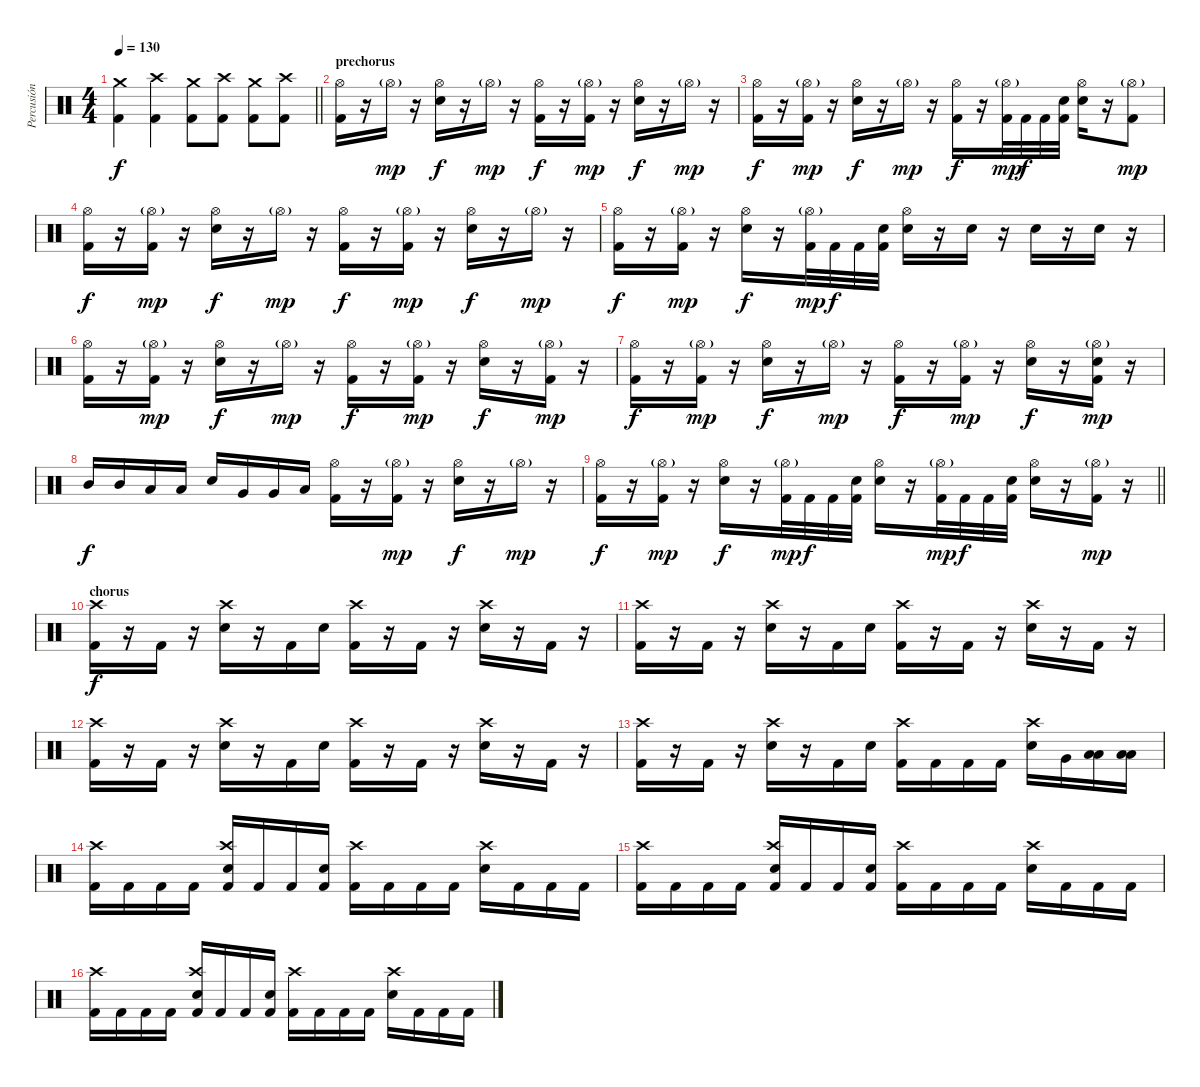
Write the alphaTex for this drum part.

\track ("Percusión" "Percusión") {instrument percussion}
\staff {score}
\articulation defaults
\ts (4 4)
\tempo 130
\clef neutral
\barLineRight lightlight
\ks c
("Kick (hit) 2" "Crash medium (hit)").4{dy f} ("Kick (hit) 2" "Crash high (hit)").4 ("Kick (hit) 2" "Crash medium (hit)").8 ("Kick (hit) 2" "Crash high (hit)").8 ("Kick (hit) 2" "Crash medium (hit)").8 ("Kick (hit) 2" "Crash high (hit)").8 |
\section ("" "prechorus")
("Hi-Hat (open)" "Kick (hit) 2").16 r.16 "Hi-Hat (open)"{g}.16{dy mp} r.16 ("Hi-Hat (open)" "Electric Snare (hit)").16{dy f} r.16 "Hi-Hat (open)"{g}.16{dy mp} r.16 ("Hi-Hat (open)" "Kick (hit) 2").16{dy f} r.16 ("Hi-Hat (open)"{g} "Kick (hit) 2").16{dy mp} r.16 ("Hi-Hat (open)" "Electric Snare (hit)").16{dy f} r.16 "Hi-Hat (open)"{g}.16{dy mp} r.16 |
("Hi-Hat (open)" "Kick (hit) 2").16{dy f} r.16 ("Hi-Hat (open)"{g} "Kick (hit) 2").16{dy mp} r.16 ("Hi-Hat (open)" "Electric Snare (hit)").16{dy f} r.16 "Hi-Hat (open)"{g}.16{dy mp} r.16 ("Hi-Hat (open)" "Kick (hit) 2").16{dy f} r.16 ("Hi-Hat (open)"{g} "Kick (hit) 2").32{dy mp} "Kick (hit) 2".32{dy f} "Kick (hit) 2".32 ("Snare (hit)" "Kick (hit) 2").32 ("Hi-Hat (open)" "Electric Snare (hit)").16 r.16 ("Hi-Hat (open)"{g} "Kick (hit) 2").8{dy mp} |
("Hi-Hat (open)" "Kick (hit) 2").16{dy f} r.16 ("Hi-Hat (open)"{g} "Kick (hit) 2").16{dy mp} r.16 ("Hi-Hat (open)" "Electric Snare (hit)").16{dy f} r.16 "Hi-Hat (open)"{g}.16{dy mp} r.16 ("Hi-Hat (open)" "Kick (hit) 2").16{dy f} r.16 ("Hi-Hat (open)"{g} "Kick (hit) 2").16{dy mp} r.16 ("Hi-Hat (open)" "Electric Snare (hit)").16{dy f} r.16 "Hi-Hat (open)"{g}.16{dy mp} r.16 |
("Hi-Hat (open)" "Kick (hit) 2").16{dy f} r.16 ("Hi-Hat (open)"{g} "Kick (hit) 2").16{dy mp} r.16 ("Hi-Hat (open)" "Electric Snare (hit)").16{dy f} r.16 ("Hi-Hat (open)"{g} "Kick (hit) 2").32{dy mp} "Kick (hit) 2".32{dy f} "Kick (hit) 2".32 ("Snare (hit)" "Kick (hit) 2").32 ("Hi-Hat (open)" "Electric Snare (hit)").16 r.16 "Electric Snare (hit)".16 r.16 "Electric Snare (hit)".16 r.16 "Electric Snare (hit)".16 r.16 |
("Hi-Hat (open)" "Kick (hit) 2").16 r.16 ("Hi-Hat (open)"{g} "Kick (hit) 2").16{dy mp} r.16 ("Hi-Hat (open)" "Electric Snare (hit)").16{dy f} r.16 "Hi-Hat (open)"{g}.16{dy mp} r.16 ("Hi-Hat (open)" "Kick (hit) 2").16{dy f} r.16 ("Hi-Hat (open)"{g} "Kick (hit) 2").16{dy mp} r.16 ("Hi-Hat (open)" "Electric Snare (hit)").16{dy f} r.16 ("Hi-Hat (open)"{g} "Kick (hit) 2").16{dy mp} r.16 |
("Hi-Hat (open)" "Kick (hit) 2").16{dy f} r.16 ("Hi-Hat (open)"{g} "Kick (hit) 2").16{dy mp} r.16 ("Hi-Hat (open)" "Electric Snare (hit)").16{dy f} r.16 "Hi-Hat (open)"{g}.16{dy mp} r.16 ("Hi-Hat (open)" "Kick (hit) 2").16{dy f} r.16 ("Hi-Hat (open)"{g} "Kick (hit) 2").16{dy mp} r.16 ("Hi-Hat (open)" "Electric Snare (hit)").16{dy f} r.16 ("Hi-Hat (open)"{g} "Electric Snare (hit)" "Kick (hit) 2").16{dy mp} r.16 |
"Mid Tom (hit)".16{dy f} "Mid Tom (hit)".16 "Low Tom (hit)".16 "Low Tom (hit)".16 "Electric Snare (hit)".16 "Very Low Tom (hit)".16 "Very Low Tom (hit)".16 "Low Floor Tom (hit)".16 ("Hi-Hat (open)" "Kick (hit) 2").16 r.16 ("Hi-Hat (open)"{g} "Kick (hit) 2").16{dy mp} r.16 ("Hi-Hat (open)" "Electric Snare (hit)").16{dy f} r.16 "Hi-Hat (open)"{g}.16{dy mp} r.16 |
\barLineRight lightlight
("Hi-Hat (open)" "Kick (hit) 2").16{dy f} r.16 ("Hi-Hat (open)"{g} "Kick (hit) 2").16{dy mp} r.16 ("Hi-Hat (open)" "Electric Snare (hit)").16{dy f} r.16 ("Hi-Hat (open)"{g} "Kick (hit) 2").32{dy mp} "Kick (hit) 2".32{dy f} "Kick (hit) 2".32 ("Snare (hit)" "Kick (hit) 2").32 ("Hi-Hat (open)" "Electric Snare (hit)").16 r.16 ("Hi-Hat (open)"{g} "Kick (hit) 2").32{dy mp} "Kick (hit) 2".32{dy f} "Kick (hit) 2".32 ("Snare (hit)" "Kick (hit) 2").32 ("Hi-Hat (open)" "Electric Snare (hit)").16 r.16 ("Kick (hit) 2" "Hi-Hat (open)"{g}).16{dy mp} r.16 |
\section ("" "chorus")
("Crash high (hit)" "Kick (hit) 2").16{dy f} r.16 "Kick (hit) 2".16 r.16 ("Crash high (hit)" "Electric Snare (hit)").16 r.16 "Kick (hit) 2".16 "Snare (hit)".16 ("Crash high (hit)" "Kick (hit) 2").16 r.16 "Kick (hit) 2".16 r.16 ("Crash high (hit)" "Electric Snare (hit)").16 r.16 "Kick (hit) 2".16 r.16 |
("Crash high (hit)" "Kick (hit) 2").16 r.16 "Kick (hit) 2".16 r.16 ("Crash high (hit)" "Electric Snare (hit)").16 r.16 "Kick (hit) 2".16 "Snare (hit)".16 ("Crash high (hit)" "Kick (hit) 2").16 r.16 "Kick (hit) 2".16 r.16 ("Crash high (hit)" "Electric Snare (hit)").16 r.16 "Kick (hit) 2".16 r.16 |
("Crash high (hit)" "Kick (hit) 2").16 r.16 "Kick (hit) 2".16 r.16 ("Crash high (hit)" "Electric Snare (hit)").16 r.16 "Kick (hit) 2".16 "Snare (hit)".16 ("Crash high (hit)" "Kick (hit) 2").16 r.16 "Kick (hit) 2".16 r.16 ("Crash high (hit)" "Electric Snare (hit)").16 r.16 "Kick (hit) 2".16 r.16 |
("Crash high (hit)" "Kick (hit) 2").16 r.16 "Kick (hit) 2".16 r.16 ("Crash high (hit)" "Electric Snare (hit)").16 r.16 "Kick (hit) 2".16 "Snare (hit)".16 ("Crash high (hit)" "Kick (hit) 2").16 "Kick (hit) 2".16 "Kick (hit) 2".16 "Kick (hit) 2".16 ("Crash high (hit)" "Electric Snare (hit)").16 "Very Low Tom (hit)".16 ("Low Tom (hit)" "Low Floor Tom (hit)").16 ("Low Tom (hit)" "Low Floor Tom (hit)").16 |
("Crash high (hit)" "Kick (hit) 2").16 "Kick (hit) 2".16 "Kick (hit) 2".16 "Kick (hit) 2".16 ("Electric Snare (hit)" "Crash high (hit)" "Kick (hit) 2").16 "Kick (hit) 2".16 "Kick (hit) 2".16 ("Snare (hit)" "Kick (hit) 2").16 ("Crash high (hit)" "Kick (hit) 2").16 "Kick (hit) 2".16 "Kick (hit) 2".16 "Kick (hit) 2".16 ("Crash high (hit)" "Electric Snare (hit)").16 "Kick (hit) 2".16 "Kick (hit) 2".16 "Kick (hit) 2".16 |
("Crash high (hit)" "Kick (hit) 2").16 "Kick (hit) 2".16 "Kick (hit) 2".16 "Kick (hit) 2".16 ("Electric Snare (hit)" "Crash high (hit)" "Kick (hit) 2").16 "Kick (hit) 2".16 "Kick (hit) 2".16 ("Snare (hit)" "Kick (hit) 2").16 ("Crash high (hit)" "Kick (hit) 2").16 "Kick (hit) 2".16 "Kick (hit) 2".16 "Kick (hit) 2".16 ("Crash high (hit)" "Electric Snare (hit)").16 "Kick (hit) 2".16 "Kick (hit) 2".16 "Kick (hit) 2".16 |
("Crash high (hit)" "Kick (hit) 2").16 "Kick (hit) 2".16 "Kick (hit) 2".16 "Kick (hit) 2".16 ("Electric Snare (hit)" "Crash high (hit)" "Kick (hit) 2").16 "Kick (hit) 2".16 "Kick (hit) 2".16 ("Snare (hit)" "Kick (hit) 2").16 ("Crash high (hit)" "Kick (hit) 2").16 "Kick (hit) 2".16 "Kick (hit) 2".16 "Kick (hit) 2".16 ("Crash high (hit)" "Electric Snare (hit)").16 "Kick (hit) 2".16 "Kick (hit) 2".16 "Kick (hit) 2".16
